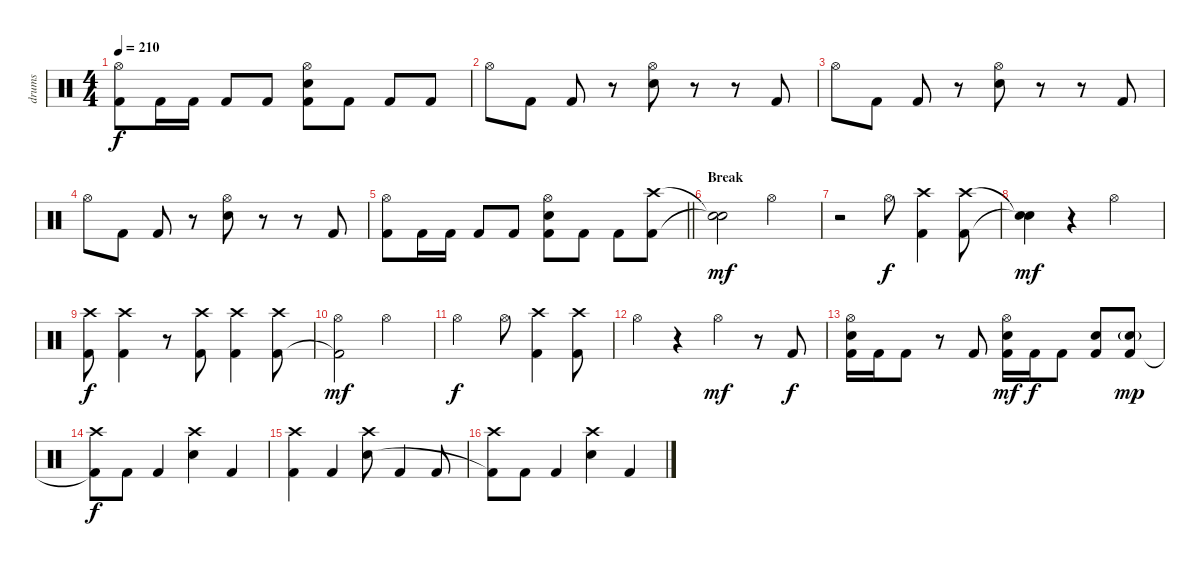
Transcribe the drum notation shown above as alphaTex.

\track ("drums" "drums") {solo instrument percussion}
\staff {score}
\articulation defaults
\ts (4 4)
\tempo 210
\clef neutral
\ks c
("Hi-Hat (open)" "Kick (hit) 2").8{dy f} "Kick (hit) 2".16 "Kick (hit) 2".16 "Kick (hit) 2".8 "Kick (hit) 2".8 ("Hi-Hat (open)" "Electric Snare (hit)" "Kick (hit) 2").8 "Kick (hit) 2".8 "Kick (hit) 2".8 "Kick (hit) 2".8 |
"Hi-Hat (open)".8 "Kick (hit) 2".8 "Kick (hit) 2".8 r.8 ("Hi-Hat (open)" "Electric Snare (hit)").8 r.8 r.8 "Kick (hit) 2".8 |
"Hi-Hat (open)".8 "Kick (hit) 2".8 "Kick (hit) 2".8 r.8 ("Hi-Hat (open)" "Electric Snare (hit)").8 r.8 r.8 "Kick (hit) 2".8 |
"Hi-Hat (open)".8 "Kick (hit) 2".8 "Kick (hit) 2".8 r.8 ("Hi-Hat (open)" "Electric Snare (hit)").8 r.8 r.8 "Kick (hit) 2".8 |
\barLineRight lightlight
("Hi-Hat (open)" "Kick (hit) 2").8 "Kick (hit) 2".16 "Kick (hit) 2".16 "Kick (hit) 2".8 "Kick (hit) 2".8 ("Hi-Hat (open)" "Electric Snare (hit)" "Kick (hit) 2").8 "Kick (hit) 2".8 "Kick (hit) 2".8 ("Crash high (hit)" "Kick (hit) 2").8 |
\section ("" "Break")
("Snare (hit)"{t} "Snare (hit)"{t}).2{dy mf} "Hi-Hat (open)".2 |
r.2 "Hi-Hat (open)".8{dy f} ("Crash high (hit)" "Kick (hit) 2").4 ("Crash high (hit)" "Kick (hit) 2").8 |
("Snare (hit)"{t} "Snare (hit)"{t}).4{dy mf} r.4 "Hi-Hat (open)".2 |
("Crash high (hit)" "Kick (hit) 2").8{dy f} ("Crash high (hit)" "Kick (hit) 2").4 r.8 ("Crash high (hit)" "Kick (hit) 2").8 ("Crash high (hit)" "Kick (hit) 2").4 ("Crash high (hit)" "Kick (hit) 2").8 |
("Hi-Hat (open)" "Kick (hit) 2"{t}).2{dy mf} "Hi-Hat (open)".2 |
"Hi-Hat (open)".2{dy f} "Hi-Hat (open)".8 ("Crash high (hit)" "Kick (hit) 2").4 ("Crash high (hit)" "Kick (hit) 2").8 |
"Hi-Hat (open)".4 r.4 "Hi-Hat (open)".4{dy mf} r.8 "Kick (hit) 2".8{dy f} |
("Hi-Hat (open)" "Electric Snare (hit)" "Kick (hit) 2").16 "Kick (hit) 2".16 "Kick (hit) 2".8 r.8 "Kick (hit) 2".8 ("Hi-Hat (open)" "Electric Snare (hit)" "Kick (hit) 2").16{dy mf} "Kick (hit) 2".16{dy f} "Kick (hit) 2".8 ("Electric Snare (hit)" "Kick (hit) 2").8 ("Electric Snare (hit)"{g} "Kick (hit) 2").8{dy mp} |
("Crash high (hit)" "Kick (hit) 2"{t}).8{dy f} "Kick (hit) 2".8 "Kick (hit) 2".4 ("Crash high (hit)" "Electric Snare (hit)").4 "Kick (hit) 2".4 |
("Crash high (hit)" "Kick (hit) 2").4 "Kick (hit) 2".4 ("Crash high (hit)" "Electric Snare (hit)").8 "Kick (hit) 2".4 "Kick (hit) 2".8 |
("Crash high (hit)" "Kick (hit) 2"{t}).8 "Kick (hit) 2".8 "Kick (hit) 2".4 ("Crash high (hit)" "Electric Snare (hit)").4 "Kick (hit) 2".4
